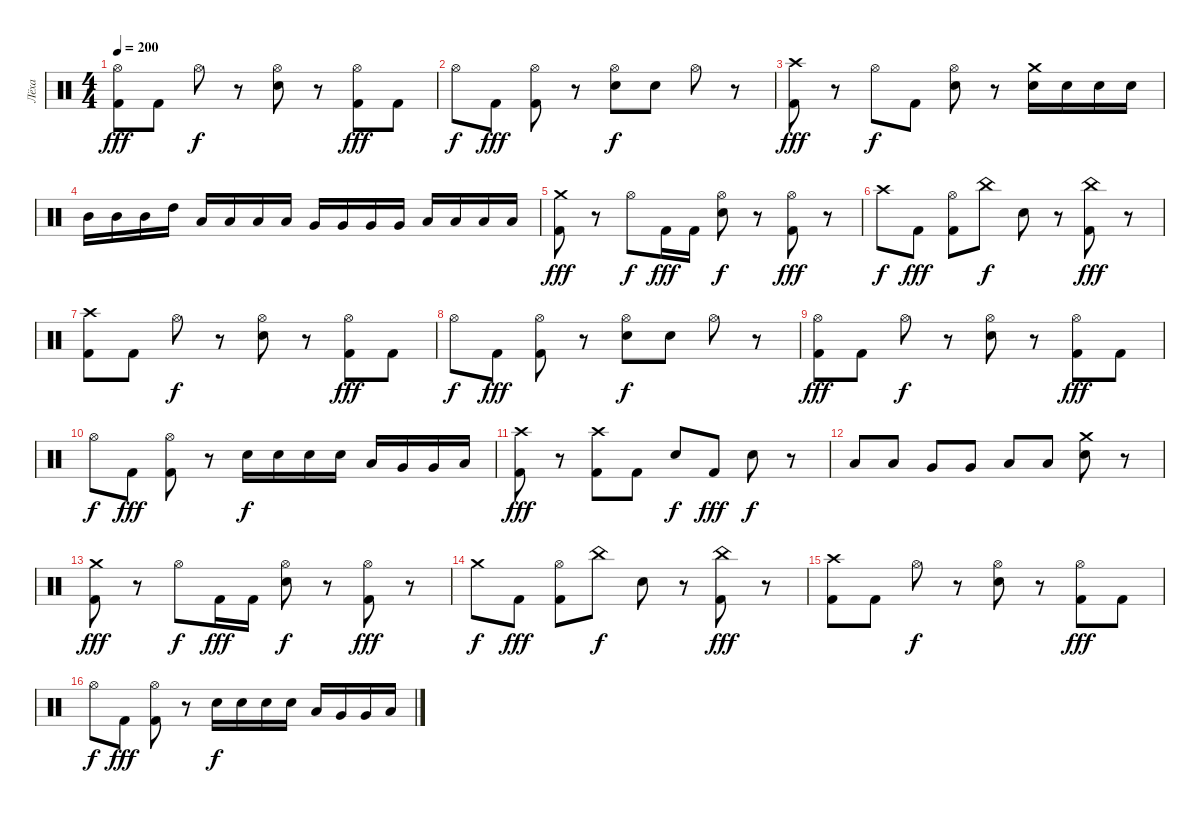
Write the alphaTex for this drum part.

\track ("Лёха" "Лёха") {instrument percussion}
\staff {score}
\articulation defaults
\ts (4 4)
\tempo 200
\clef neutral
\ks c
("Hi-Hat (open)" "Kick (hit) 2").8{dy fff} "Kick (hit) 2".8 "Hi-Hat (open)".8{dy f} r.8 ("Hi-Hat (open)" "Electric Snare (hit)").8 r.8 ("Hi-Hat (open)" "Kick (hit) 2").8{dy fff} "Kick (hit) 2".8 |
"Hi-Hat (open)".8{dy f} "Kick (hit) 2".8{dy fff} ("Hi-Hat (open)" "Kick (hit) 2").8 r.8 ("Hi-Hat (open)" "Electric Snare (hit)").8{dy f} "Electric Snare (hit)".8 "Hi-Hat (open)".8 r.8 |
("Crash high (hit)" "Kick (hit) 2").8{dy fff} r.8 "Hi-Hat (open)".8{dy f} "Kick (hit) 2".8 ("Hi-Hat (open)" "Electric Snare (hit)").8 r.8 ("Crash medium (hit)" "Electric Snare (hit)").16 "Electric Snare (hit)".16 "Electric Snare (hit)".16 "Electric Snare (hit)".16 |
"Mid Tom (hit)".16 "Mid Tom (hit)".16 "Mid Tom (hit)".16 "High Tom (hit)".16 "Low Tom (hit)".16 "Low Tom (hit)".16 "Low Tom (hit)".16 "Low Tom (hit)".16 "Very Low Tom (hit)".16 "Very Low Tom (hit)".16 "Very Low Tom (hit)".16 "Very Low Tom (hit)".16 "Low Floor Tom (hit)".16 "Low Floor Tom (hit)".16 "Low Floor Tom (hit)".16 "Low Floor Tom (hit)".16 |
("Crash medium (hit)" "Kick (hit) 2").8{dy fff} r.8 "Hi-Hat (open)".8{dy f} "Kick (hit) 2".16{dy fff} "Kick (hit) 2".16 ("Hi-Hat (open)" "Electric Snare (hit)").8{dy f} r.8 ("Hi-Hat (open)" "Kick (hit) 2").8{dy fff} r.8 |
"Crash high (hit)".8{dy f} "Kick (hit) 2".8{dy fff} ("Hi-Hat (open)" "Kick (hit) 2").8 "China (hit)".8{dy f} "Electric Snare (hit)".8 r.8 ("China (hit)" "Kick (hit) 2").8{dy fff} r.8 |
("Crash high (hit)" "Kick (hit) 2").8 "Kick (hit) 2".8 "Hi-Hat (open)".8{dy f} r.8 ("Hi-Hat (open)" "Electric Snare (hit)").8 r.8 ("Hi-Hat (open)" "Kick (hit) 2").8{dy fff} "Kick (hit) 2".8 |
"Hi-Hat (open)".8{dy f} "Kick (hit) 2".8{dy fff} ("Hi-Hat (open)" "Kick (hit) 2").8 r.8 ("Hi-Hat (open)" "Electric Snare (hit)").8{dy f} "Electric Snare (hit)".8 "Hi-Hat (open)".8 r.8 |
("Hi-Hat (open)" "Kick (hit) 2").8{dy fff} "Kick (hit) 2".8 "Hi-Hat (open)".8{dy f} r.8 ("Hi-Hat (open)" "Electric Snare (hit)").8 r.8 ("Hi-Hat (open)" "Kick (hit) 2").8{dy fff} "Kick (hit) 2".8 |
"Hi-Hat (open)".8{dy f} "Kick (hit) 2".8{dy fff} ("Hi-Hat (open)" "Kick (hit) 2").8 r.8 "Electric Snare (hit)".16{dy f} "Electric Snare (hit)".16 "Electric Snare (hit)".16 "Electric Snare (hit)".16 "Low Tom (hit)".16 "Very Low Tom (hit)".16 "Very Low Tom (hit)".16 "Low Floor Tom (hit)".16 |
("Crash high (hit)" "Kick (hit) 2").8{dy fff} r.8 ("Crash high (hit)" "Kick (hit) 2").8 "Kick (hit) 2".8 "Electric Snare (hit)".8{dy f} "Kick (hit) 2".8{dy fff} "Electric Snare (hit)".8{dy f} r.8 |
"Low Tom (hit)".8 "Low Tom (hit)".8 "Very Low Tom (hit)".8 "Very Low Tom (hit)".8 "Low Floor Tom (hit)".8 "Low Floor Tom (hit)".8 ("Crash medium (hit)" "Electric Snare (hit)").8 r.8 |
("Crash medium (hit)" "Kick (hit) 2").8{dy fff} r.8 "Hi-Hat (open)".8{dy f} "Kick (hit) 2".16{dy fff} "Kick (hit) 2".16 ("Hi-Hat (open)" "Electric Snare (hit)").8{dy f} r.8 ("Hi-Hat (open)" "Kick (hit) 2").8{dy fff} r.8 |
"Crash medium (hit)".8{dy f} "Kick (hit) 2".8{dy fff} ("Hi-Hat (open)" "Kick (hit) 2").8 "China (hit)".8{dy f} "Electric Snare (hit)".8 r.8 ("China (hit)" "Kick (hit) 2").8{dy fff} r.8 |
("Crash high (hit)" "Kick (hit) 2").8 "Kick (hit) 2".8 "Hi-Hat (open)".8{dy f} r.8 ("Hi-Hat (open)" "Electric Snare (hit)").8 r.8 ("Hi-Hat (open)" "Kick (hit) 2").8{dy fff} "Kick (hit) 2".8 |
"Hi-Hat (open)".8{dy f} "Kick (hit) 2".8{dy fff} ("Hi-Hat (open)" "Kick (hit) 2").8 r.8 "Electric Snare (hit)".16{dy f} "Electric Snare (hit)".16 "Electric Snare (hit)".16 "Electric Snare (hit)".16 "Low Tom (hit)".16 "Very Low Tom (hit)".16 "Very Low Tom (hit)".16 "Low Floor Tom (hit)".16
